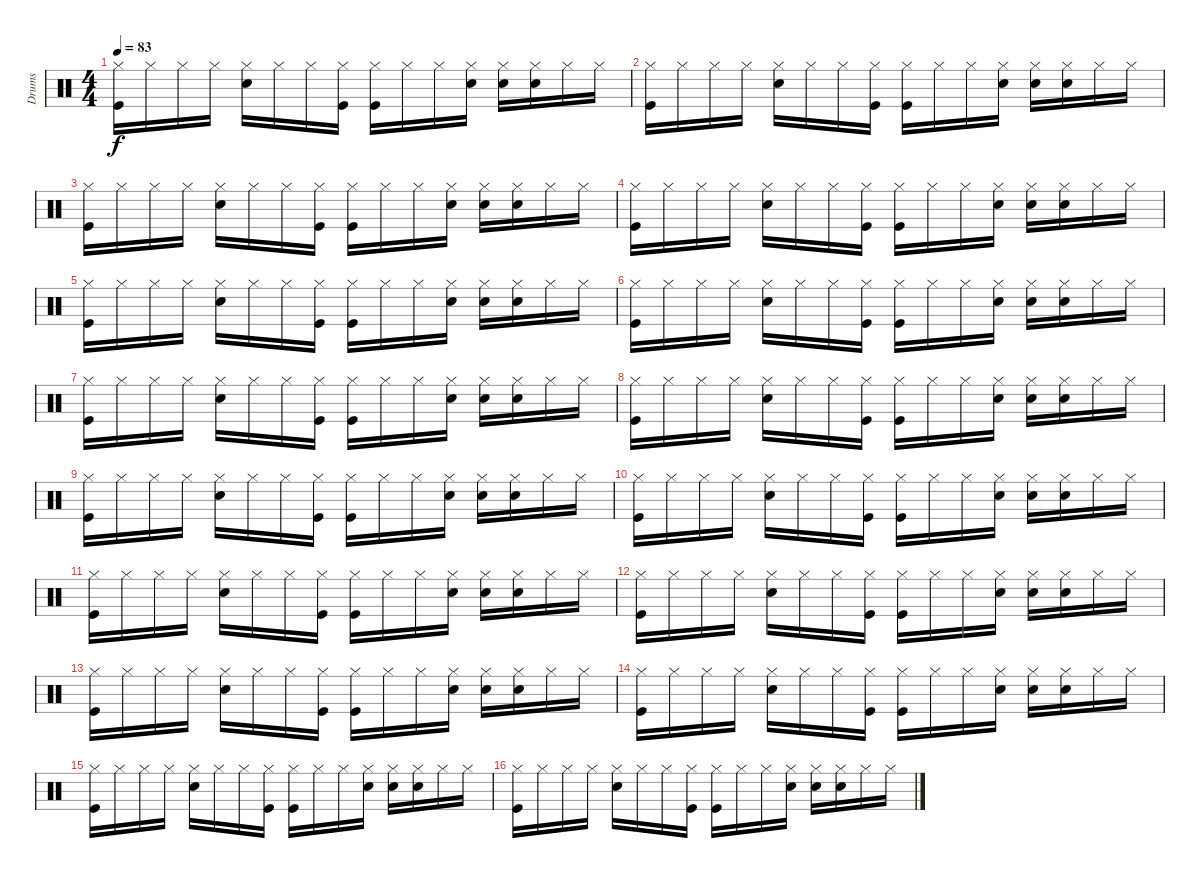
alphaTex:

\track ("Drums" "Drums") {instrument percussion}
\staff {score}
\articulation defaults
\ts (4 4)
\tempo 83
\clef neutral
\ks c
("Hi-Hat (closed)" "Kick (hit)").16{dy f} "Hi-Hat (closed)".16 "Hi-Hat (closed)".16 "Hi-Hat (closed)".16 ("Hi-Hat (closed)" "Snare (hit) 2").16 "Hi-Hat (closed)".16 "Hi-Hat (closed)".16 ("Hi-Hat (closed)" "Kick (hit)").16 ("Hi-Hat (closed)" "Kick (hit)").16 "Hi-Hat (closed)".16 "Hi-Hat (closed)".16 ("Hand Clap (hit)" "Hi-Hat (closed)").16 ("Hi-Hat (closed)" "Snare (hit) 2").16 ("Hand Clap (hit)" "Hi-Hat (closed)").16 "Hi-Hat (closed)".16 "Hi-Hat (closed)".16 |
("Hi-Hat (closed)" "Kick (hit)").16 "Hi-Hat (closed)".16 "Hi-Hat (closed)".16 "Hi-Hat (closed)".16 ("Hi-Hat (closed)" "Snare (hit) 2").16 "Hi-Hat (closed)".16 "Hi-Hat (closed)".16 ("Hi-Hat (closed)" "Kick (hit)").16 ("Hi-Hat (closed)" "Kick (hit)").16 "Hi-Hat (closed)".16 "Hi-Hat (closed)".16 ("Hand Clap (hit)" "Hi-Hat (closed)").16 ("Hi-Hat (closed)" "Snare (hit) 2").16 ("Hand Clap (hit)" "Hi-Hat (closed)").16 "Hi-Hat (closed)".16 "Hi-Hat (closed)".16 |
("Hi-Hat (closed)" "Kick (hit)").16 "Hi-Hat (closed)".16 "Hi-Hat (closed)".16 "Hi-Hat (closed)".16 ("Hi-Hat (closed)" "Snare (hit) 2").16 "Hi-Hat (closed)".16 "Hi-Hat (closed)".16 ("Hi-Hat (closed)" "Kick (hit)").16 ("Hi-Hat (closed)" "Kick (hit)").16 "Hi-Hat (closed)".16 "Hi-Hat (closed)".16 ("Hand Clap (hit)" "Hi-Hat (closed)").16 ("Hi-Hat (closed)" "Snare (hit) 2").16 ("Hand Clap (hit)" "Hi-Hat (closed)").16 "Hi-Hat (closed)".16 "Hi-Hat (closed)".16 |
("Hi-Hat (closed)" "Kick (hit)").16 "Hi-Hat (closed)".16 "Hi-Hat (closed)".16 "Hi-Hat (closed)".16 ("Hi-Hat (closed)" "Snare (hit) 2").16 "Hi-Hat (closed)".16 "Hi-Hat (closed)".16 ("Hi-Hat (closed)" "Kick (hit)").16 ("Hi-Hat (closed)" "Kick (hit)").16 "Hi-Hat (closed)".16 "Hi-Hat (closed)".16 ("Hand Clap (hit)" "Hi-Hat (closed)").16 ("Hi-Hat (closed)" "Snare (hit) 2").16 ("Hand Clap (hit)" "Hi-Hat (closed)").16 "Hi-Hat (closed)".16 "Hi-Hat (closed)".16 |
("Hi-Hat (closed)" "Kick (hit)").16 "Hi-Hat (closed)".16 "Hi-Hat (closed)".16 "Hi-Hat (closed)".16 ("Hi-Hat (closed)" "Snare (hit) 2").16 "Hi-Hat (closed)".16 "Hi-Hat (closed)".16 ("Hi-Hat (closed)" "Kick (hit)").16 ("Hi-Hat (closed)" "Kick (hit)").16 "Hi-Hat (closed)".16 "Hi-Hat (closed)".16 ("Hand Clap (hit)" "Hi-Hat (closed)").16 ("Hi-Hat (closed)" "Snare (hit) 2").16 ("Hand Clap (hit)" "Hi-Hat (closed)").16 "Hi-Hat (closed)".16 "Hi-Hat (closed)".16 |
("Hi-Hat (closed)" "Kick (hit)").16 "Hi-Hat (closed)".16 "Hi-Hat (closed)".16 "Hi-Hat (closed)".16 ("Hi-Hat (closed)" "Snare (hit) 2").16 "Hi-Hat (closed)".16 "Hi-Hat (closed)".16 ("Hi-Hat (closed)" "Kick (hit)").16 ("Hi-Hat (closed)" "Kick (hit)").16 "Hi-Hat (closed)".16 "Hi-Hat (closed)".16 ("Hand Clap (hit)" "Hi-Hat (closed)").16 ("Hi-Hat (closed)" "Snare (hit) 2").16 ("Hand Clap (hit)" "Hi-Hat (closed)").16 "Hi-Hat (closed)".16 "Hi-Hat (closed)".16 |
("Hi-Hat (closed)" "Kick (hit)").16 "Hi-Hat (closed)".16 "Hi-Hat (closed)".16 "Hi-Hat (closed)".16 ("Hi-Hat (closed)" "Snare (hit) 2").16 "Hi-Hat (closed)".16 "Hi-Hat (closed)".16 ("Hi-Hat (closed)" "Kick (hit)").16 ("Hi-Hat (closed)" "Kick (hit)").16 "Hi-Hat (closed)".16 "Hi-Hat (closed)".16 ("Hand Clap (hit)" "Hi-Hat (closed)").16 ("Hi-Hat (closed)" "Snare (hit) 2").16 ("Hand Clap (hit)" "Hi-Hat (closed)").16 "Hi-Hat (closed)".16 "Hi-Hat (closed)".16 |
("Hi-Hat (closed)" "Kick (hit)").16 "Hi-Hat (closed)".16 "Hi-Hat (closed)".16 "Hi-Hat (closed)".16 ("Hi-Hat (closed)" "Snare (hit) 2").16 "Hi-Hat (closed)".16 "Hi-Hat (closed)".16 ("Hi-Hat (closed)" "Kick (hit)").16 ("Hi-Hat (closed)" "Kick (hit)").16 "Hi-Hat (closed)".16 "Hi-Hat (closed)".16 ("Hand Clap (hit)" "Hi-Hat (closed)").16 ("Hi-Hat (closed)" "Snare (hit) 2").16 ("Hand Clap (hit)" "Hi-Hat (closed)").16 "Hi-Hat (closed)".16 "Hi-Hat (closed)".16 |
("Hi-Hat (closed)" "Kick (hit)").16 "Hi-Hat (closed)".16 "Hi-Hat (closed)".16 "Hi-Hat (closed)".16 ("Hi-Hat (closed)" "Snare (hit) 2").16 "Hi-Hat (closed)".16 "Hi-Hat (closed)".16 ("Hi-Hat (closed)" "Kick (hit)").16 ("Hi-Hat (closed)" "Kick (hit)").16 "Hi-Hat (closed)".16 "Hi-Hat (closed)".16 ("Hand Clap (hit)" "Hi-Hat (closed)").16 ("Hi-Hat (closed)" "Snare (hit) 2").16 ("Hand Clap (hit)" "Hi-Hat (closed)").16 "Hi-Hat (closed)".16 "Hi-Hat (closed)".16 |
("Hi-Hat (closed)" "Kick (hit)").16 "Hi-Hat (closed)".16 "Hi-Hat (closed)".16 "Hi-Hat (closed)".16 ("Hi-Hat (closed)" "Snare (hit) 2").16 "Hi-Hat (closed)".16 "Hi-Hat (closed)".16 ("Hi-Hat (closed)" "Kick (hit)").16 ("Hi-Hat (closed)" "Kick (hit)").16 "Hi-Hat (closed)".16 "Hi-Hat (closed)".16 ("Hand Clap (hit)" "Hi-Hat (closed)").16 ("Hi-Hat (closed)" "Snare (hit) 2").16 ("Hand Clap (hit)" "Hi-Hat (closed)").16 "Hi-Hat (closed)".16 "Hi-Hat (closed)".16 |
("Hi-Hat (closed)" "Kick (hit)").16 "Hi-Hat (closed)".16 "Hi-Hat (closed)".16 "Hi-Hat (closed)".16 ("Hi-Hat (closed)" "Snare (hit) 2").16 "Hi-Hat (closed)".16 "Hi-Hat (closed)".16 ("Hi-Hat (closed)" "Kick (hit)").16 ("Hi-Hat (closed)" "Kick (hit)").16 "Hi-Hat (closed)".16 "Hi-Hat (closed)".16 ("Hand Clap (hit)" "Hi-Hat (closed)").16 ("Hi-Hat (closed)" "Snare (hit) 2").16 ("Hand Clap (hit)" "Hi-Hat (closed)").16 "Hi-Hat (closed)".16 "Hi-Hat (closed)".16 |
("Hi-Hat (closed)" "Kick (hit)").16 "Hi-Hat (closed)".16 "Hi-Hat (closed)".16 "Hi-Hat (closed)".16 ("Hi-Hat (closed)" "Snare (hit) 2").16 "Hi-Hat (closed)".16 "Hi-Hat (closed)".16 ("Hi-Hat (closed)" "Kick (hit)").16 ("Hi-Hat (closed)" "Kick (hit)").16 "Hi-Hat (closed)".16 "Hi-Hat (closed)".16 ("Hand Clap (hit)" "Hi-Hat (closed)").16 ("Hi-Hat (closed)" "Snare (hit) 2").16 ("Hand Clap (hit)" "Hi-Hat (closed)").16 "Hi-Hat (closed)".16 "Hi-Hat (closed)".16 |
("Hi-Hat (closed)" "Kick (hit)").16 "Hi-Hat (closed)".16 "Hi-Hat (closed)".16 "Hi-Hat (closed)".16 ("Hi-Hat (closed)" "Snare (hit) 2").16 "Hi-Hat (closed)".16 "Hi-Hat (closed)".16 ("Hi-Hat (closed)" "Kick (hit)").16 ("Hi-Hat (closed)" "Kick (hit)").16 "Hi-Hat (closed)".16 "Hi-Hat (closed)".16 ("Hand Clap (hit)" "Hi-Hat (closed)").16 ("Hi-Hat (closed)" "Snare (hit) 2").16 ("Hand Clap (hit)" "Hi-Hat (closed)").16 "Hi-Hat (closed)".16 "Hi-Hat (closed)".16 |
("Hi-Hat (closed)" "Kick (hit)").16 "Hi-Hat (closed)".16 "Hi-Hat (closed)".16 "Hi-Hat (closed)".16 ("Hi-Hat (closed)" "Snare (hit) 2").16 "Hi-Hat (closed)".16 "Hi-Hat (closed)".16 ("Hi-Hat (closed)" "Kick (hit)").16 ("Hi-Hat (closed)" "Kick (hit)").16 "Hi-Hat (closed)".16 "Hi-Hat (closed)".16 ("Hand Clap (hit)" "Hi-Hat (closed)").16 ("Hi-Hat (closed)" "Snare (hit) 2").16 ("Hand Clap (hit)" "Hi-Hat (closed)").16 "Hi-Hat (closed)".16 "Hi-Hat (closed)".16 |
("Hi-Hat (closed)" "Kick (hit)").16 "Hi-Hat (closed)".16 "Hi-Hat (closed)".16 "Hi-Hat (closed)".16 ("Hi-Hat (closed)" "Snare (hit) 2").16 "Hi-Hat (closed)".16 "Hi-Hat (closed)".16 ("Hi-Hat (closed)" "Kick (hit)").16 ("Hi-Hat (closed)" "Kick (hit)").16 "Hi-Hat (closed)".16 "Hi-Hat (closed)".16 ("Hand Clap (hit)" "Hi-Hat (closed)").16 ("Hi-Hat (closed)" "Snare (hit) 2").16 ("Hand Clap (hit)" "Hi-Hat (closed)").16 "Hi-Hat (closed)".16 "Hi-Hat (closed)".16 |
("Hi-Hat (closed)" "Kick (hit)").16 "Hi-Hat (closed)".16 "Hi-Hat (closed)".16 "Hi-Hat (closed)".16 ("Hi-Hat (closed)" "Snare (hit) 2").16 "Hi-Hat (closed)".16 "Hi-Hat (closed)".16 ("Hi-Hat (closed)" "Kick (hit)").16 ("Hi-Hat (closed)" "Kick (hit)").16 "Hi-Hat (closed)".16 "Hi-Hat (closed)".16 ("Hand Clap (hit)" "Hi-Hat (closed)").16 ("Hi-Hat (closed)" "Snare (hit) 2").16 ("Hand Clap (hit)" "Hi-Hat (closed)").16 "Hi-Hat (closed)".16 "Hi-Hat (closed)".16
